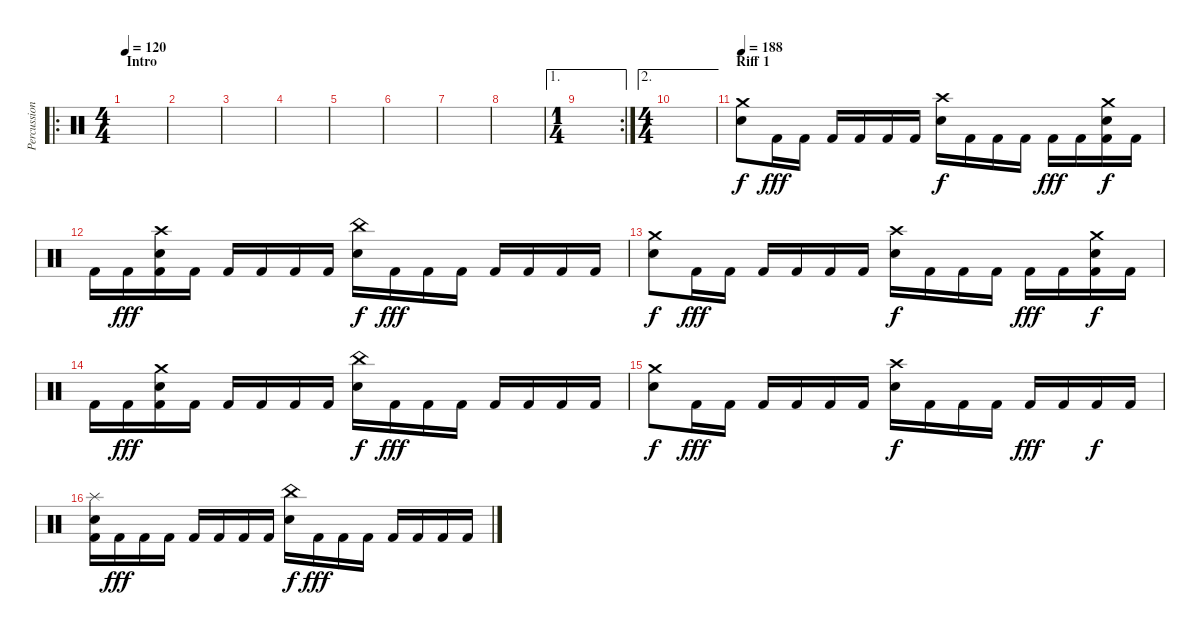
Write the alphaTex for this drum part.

\track ("Percussion" "Percussion") {instrument percussion}
\staff {score}
\articulation defaults
\ro
\ts (4 4)
\section ("" "Intro")
\tempo 120
\tempo 80
\tempo 120
\clef neutral
\ks c
|
|
|
|
|
|
|
|
\ae 1
\rc 2
\ts (1 4)
|
\ae 2
\ts (4 4)
|
\section ("" "Riff 1")
\tempo 188
("Crash medium (hit)" "Electric Snare (hit)").8 "Kick (hit) 2".16{dy fff} "Kick (hit) 2".16 "Kick (hit) 2".16 "Kick (hit) 2".16 "Kick (hit) 2".16 "Kick (hit) 2".16 ("Crash high (hit)" "Electric Snare (hit)").16{dy f} "Kick (hit) 2".16 "Kick (hit) 2".16 "Kick (hit) 2".16 "Kick (hit) 2".16{dy fff} "Kick (hit) 2".16 ("Crash medium (hit)" "Electric Snare (hit)" "Kick (hit) 2").16{dy f} "Kick (hit) 2".16 |
"Kick (hit) 2".16 "Kick (hit) 2".16{dy fff} ("Crash high (hit)" "Electric Snare (hit)" "Kick (hit) 2").16 "Kick (hit) 2".16 "Kick (hit) 2".16 "Kick (hit) 2".16 "Kick (hit) 2".16 "Kick (hit) 2".16 ("China (hit)" "Electric Snare (hit)").16{dy f} "Kick (hit) 2".16{dy fff} "Kick (hit) 2".16 "Kick (hit) 2".16 "Kick (hit) 2".16 "Kick (hit) 2".16 "Kick (hit) 2".16 "Kick (hit) 2".16 |
("Crash medium (hit)" "Electric Snare (hit)").8{dy f} "Kick (hit) 2".16{dy fff} "Kick (hit) 2".16 "Kick (hit) 2".16 "Kick (hit) 2".16 "Kick (hit) 2".16 "Kick (hit) 2".16 ("Crash high (hit)" "Electric Snare (hit)").16{dy f} "Kick (hit) 2".16 "Kick (hit) 2".16 "Kick (hit) 2".16 "Kick (hit) 2".16{dy fff} "Kick (hit) 2".16 ("Crash medium (hit)" "Electric Snare (hit)" "Kick (hit) 2").16{dy f} "Kick (hit) 2".16 |
"Kick (hit) 2".16 "Kick (hit) 2".16{dy fff} ("Crash medium (hit)" "Electric Snare (hit)" "Kick (hit) 2").16 "Kick (hit) 2".16 "Kick (hit) 2".16 "Kick (hit) 2".16 "Kick (hit) 2".16 "Kick (hit) 2".16 ("China (hit)" "Electric Snare (hit)").16{dy f} "Kick (hit) 2".16{dy fff} "Kick (hit) 2".16 "Kick (hit) 2".16 "Kick (hit) 2".16 "Kick (hit) 2".16 "Kick (hit) 2".16 "Kick (hit) 2".16 |
("Crash medium (hit)" "Electric Snare (hit)").8{dy f} "Kick (hit) 2".16{dy fff} "Kick (hit) 2".16 "Kick (hit) 2".16 "Kick (hit) 2".16 "Kick (hit) 2".16 "Kick (hit) 2".16 ("Crash high (hit)" "Electric Snare (hit)").16{dy f} "Kick (hit) 2".16 "Kick (hit) 2".16 "Kick (hit) 2".16 "Kick (hit) 2".16{dy fff} "Kick (hit) 2".16 "Kick (hit) 2".16{dy f} "Kick (hit) 2".16 |
("Splash (hit)" "Electric Snare (hit)" "Kick (hit) 2").16 "Kick (hit) 2".16{dy fff} "Kick (hit) 2".16 "Kick (hit) 2".16 "Kick (hit) 2".16 "Kick (hit) 2".16 "Kick (hit) 2".16 "Kick (hit) 2".16 ("China (hit)" "Electric Snare (hit)").16{dy f} "Kick (hit) 2".16{dy fff} "Kick (hit) 2".16 "Kick (hit) 2".16 "Kick (hit) 2".16 "Kick (hit) 2".16 "Kick (hit) 2".16 "Kick (hit) 2".16
